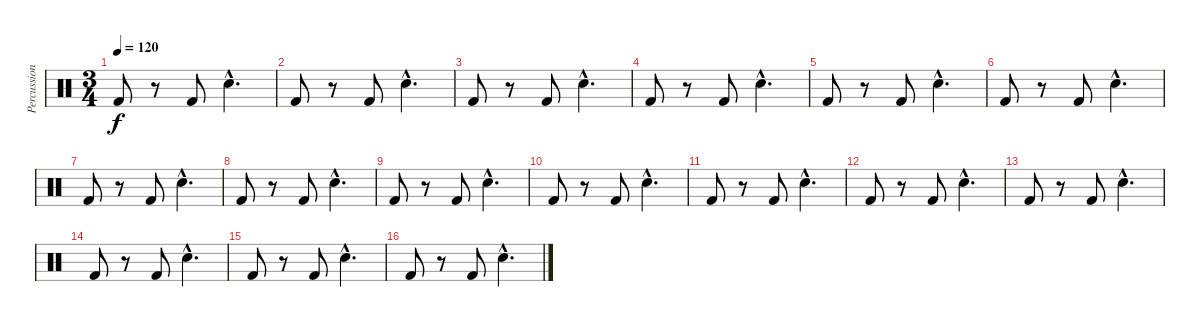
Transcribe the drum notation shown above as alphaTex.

\track ("Percussion" "Percussion") {instrument percussion}
\staff {score}
\articulation defaults
\ts (3 4)
\tempo 120
\clef neutral
\ks c "Kick (hit) 2".8{dy f}
r.8 "Kick (hit) 2".8 "Electric Snare (hit)"{hac}.4{d} |
"Kick (hit) 2".8 r.8 "Kick (hit) 2".8 "Electric Snare (hit)"{hac}.4{d} |
"Kick (hit) 2".8 r.8 "Kick (hit) 2".8 "Electric Snare (hit)"{hac}.4{d} |
"Kick (hit) 2".8 r.8 "Kick (hit) 2".8 "Electric Snare (hit)"{hac}.4{d} |
"Kick (hit) 2".8 r.8 "Kick (hit) 2".8 "Electric Snare (hit)"{hac}.4{d} |
"Kick (hit) 2".8 r.8 "Kick (hit) 2".8 "Electric Snare (hit)"{hac}.4{d} |
"Kick (hit) 2".8 r.8 "Kick (hit) 2".8 "Electric Snare (hit)"{hac}.4{d} |
"Kick (hit) 2".8 r.8 "Kick (hit) 2".8 "Electric Snare (hit)"{hac}.4{d} |
"Kick (hit) 2".8 r.8 "Kick (hit) 2".8 "Electric Snare (hit)"{hac}.4{d} |
"Kick (hit) 2".8 r.8 "Kick (hit) 2".8 "Electric Snare (hit)"{hac}.4{d} |
"Kick (hit) 2".8 r.8 "Kick (hit) 2".8 "Electric Snare (hit)"{hac}.4{d} |
"Kick (hit) 2".8 r.8 "Kick (hit) 2".8 "Electric Snare (hit)"{hac}.4{d} |
"Kick (hit) 2".8 r.8 "Kick (hit) 2".8 "Electric Snare (hit)"{hac}.4{d} |
"Kick (hit) 2".8 r.8 "Kick (hit) 2".8 "Electric Snare (hit)"{hac}.4{d} |
"Kick (hit) 2".8 r.8 "Kick (hit) 2".8 "Electric Snare (hit)"{hac}.4{d} |
"Kick (hit) 2".8 r.8 "Kick (hit) 2".8 "Electric Snare (hit)"{hac}.4{d}
